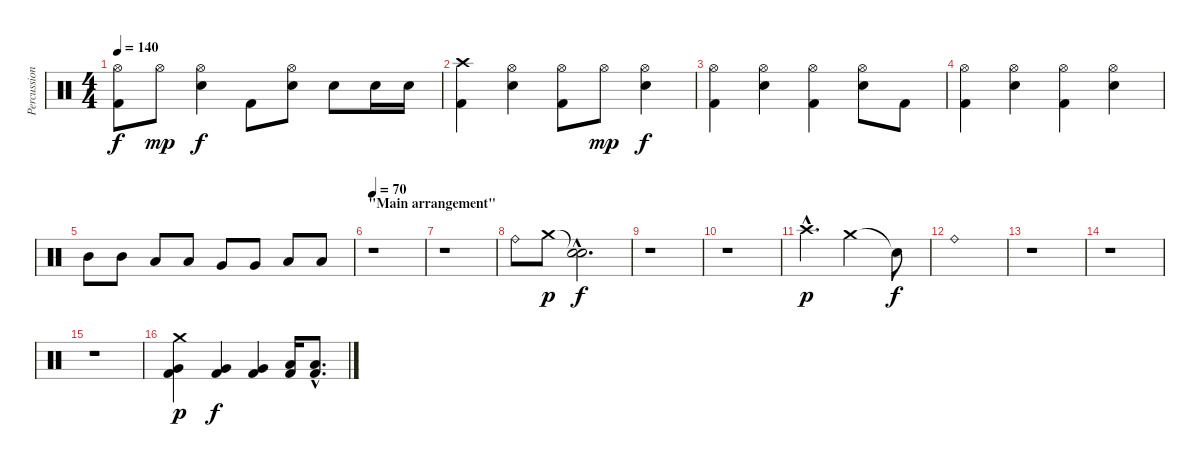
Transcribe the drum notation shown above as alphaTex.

\track ("Percussion" "Percussion") {instrument percussion}
\staff {score}
\articulation defaults
\ts (4 4)
\tempo 140
\clef neutral
\ks c
("Hi-Hat (open)" "Kick (hit) 2").8{dy f} "Hi-Hat (open)".8{dy mp} ("Hi-Hat (open)" "Electric Snare (hit)").4{dy f} "Kick (hit) 2".8 ("Hi-Hat (open)" "Electric Snare (hit)").8 "Electric Snare (hit)".8 "Electric Snare (hit)".16 "Electric Snare (hit)".16 |
("Crash high (hit)" "Kick (hit) 2").4 ("Hi-Hat (open)" "Electric Snare (hit)").4 ("Hi-Hat (open)" "Kick (hit) 2").8 "Hi-Hat (open)".8{dy mp} ("Hi-Hat (open)" "Electric Snare (hit)").4{dy f} |
("Hi-Hat (open)" "Kick (hit) 2").4 ("Hi-Hat (open)" "Electric Snare (hit)").4 ("Hi-Hat (open)" "Kick (hit) 2").4 ("Hi-Hat (open)" "Electric Snare (hit)").8 "Kick (hit) 2".8 |
("Hi-Hat (open)" "Kick (hit) 2").4 ("Hi-Hat (open)" "Electric Snare (hit)").4 ("Hi-Hat (open)" "Kick (hit) 2").4 ("Hi-Hat (open)" "Electric Snare (hit)").4 |
"Mid Tom (hit)".8 "Mid Tom (hit)".8 "Low Tom (hit)".8 "Low Tom (hit)".8 "Very Low Tom (hit)".8 "Very Low Tom (hit)".8 "Low Floor Tom (hit)".8 "Low Floor Tom (hit)".8 |
\section ("" "\"Main arrangement\"")
\tempo 70
r.1 |
r.1 |
"Ride (bell)".8 "Crash medium (hit)".8{dy p} ("Snare (hit)"{hac t} "Snare (hit)"{hac}).2{d dy f} |
r.1 |
r.1 |
"Crash high (hit)"{hac}.4{d dy p} "Crash medium (hit)".2 "Snare (hit)"{t}.8{dy f} |
"Ride (bell)".1 |
r.1 |
r.1 |
r.1 |
("Crash medium (hit)" "Very Low Tom (hit)" "Kick (hit) 2").4{dy p} ("Very Low Tom (hit)" "Kick (hit) 2").4{dy f} ("Very Low Tom (hit)" "Kick (hit) 2").4 ("Low Floor Tom (hit)" "Kick (hit) 2").16 ("Low Floor Tom (hit)"{hac} "Kick (hit) 2"{hac}).8{d}
